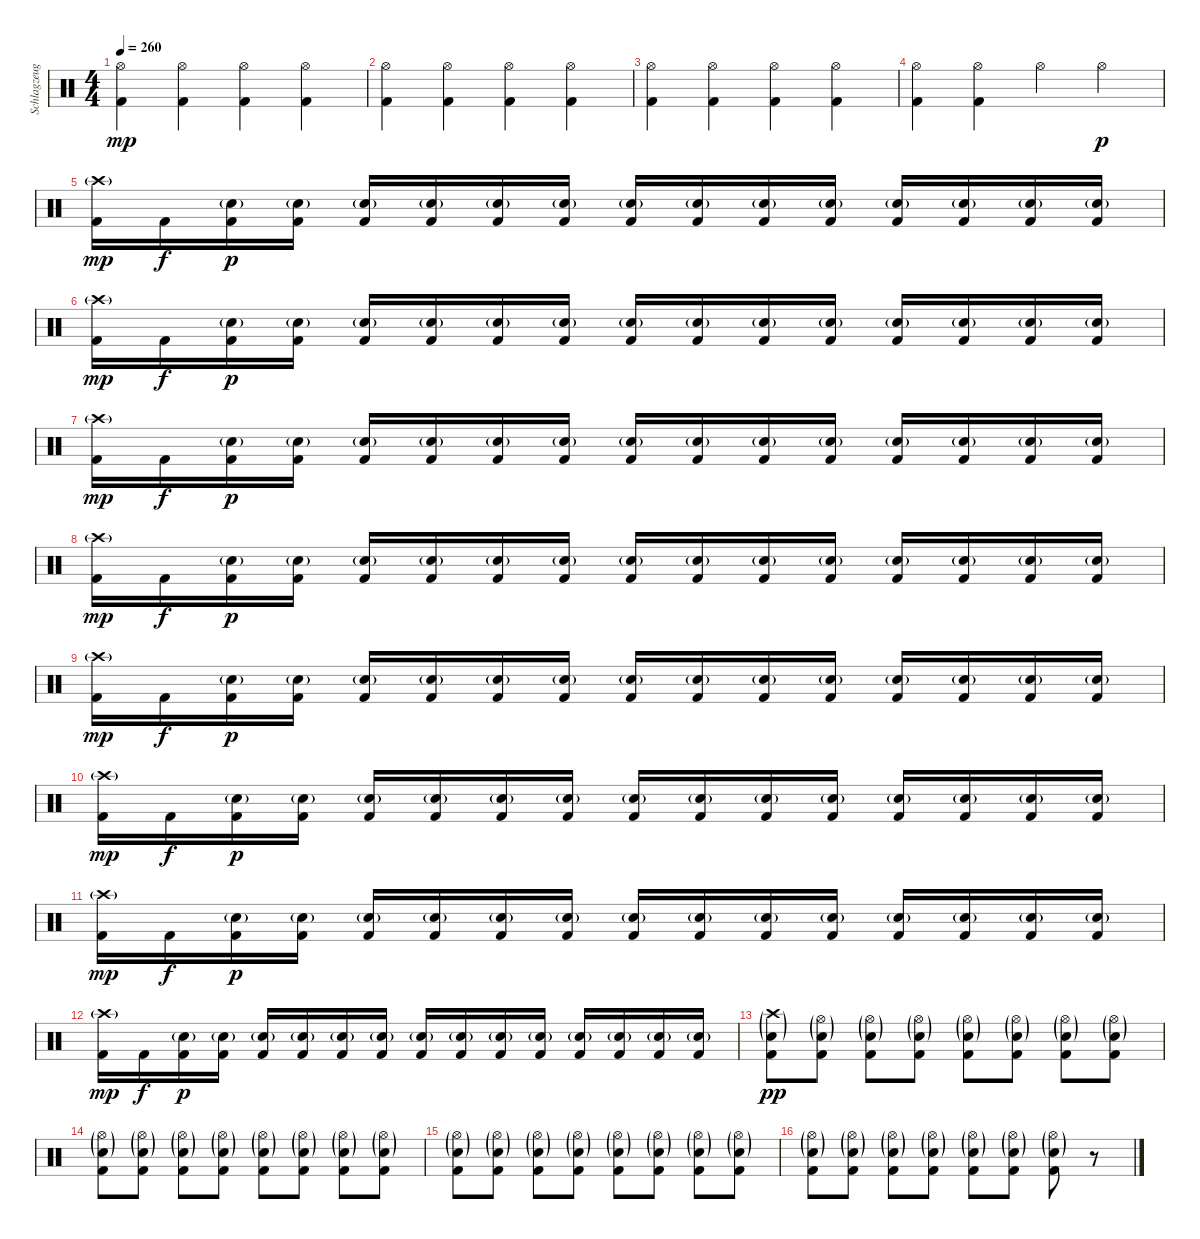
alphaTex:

\track ("Schlagzeug" "Schlagzeug") {instrument percussion}
\staff {score}
\articulation defaults
\ts (4 4)
\tempo 260
\clef neutral
\ks c
("Hi-Hat (open)" "Kick (hit) 2").4{dy mp} ("Hi-Hat (open)" "Kick (hit) 2").4 ("Hi-Hat (open)" "Kick (hit) 2").4 ("Hi-Hat (open)" "Kick (hit) 2").4 |
("Hi-Hat (open)" "Kick (hit) 2").4 ("Hi-Hat (open)" "Kick (hit) 2").4 ("Hi-Hat (open)" "Kick (hit) 2").4 ("Hi-Hat (open)" "Kick (hit) 2").4 |
("Hi-Hat (open)" "Kick (hit) 2").4 ("Hi-Hat (open)" "Kick (hit) 2").4 ("Hi-Hat (open)" "Kick (hit) 2").4 ("Hi-Hat (open)" "Kick (hit) 2").4 |
("Hi-Hat (open)" "Kick (hit) 2").4 ("Hi-Hat (open)" "Kick (hit) 2").4 "Hi-Hat (open)".4 "Hi-Hat (open)".4{dy p} |
("Crash high (hit)"{g} "Kick (hit) 2").16{dy mp} "Kick (hit) 2".16{dy f} ("Electric Snare (hit)"{g} "Kick (hit) 2").16{dy p} ("Electric Snare (hit)"{g} "Kick (hit) 2").16 ("Electric Snare (hit)"{g} "Kick (hit) 2").16 ("Electric Snare (hit)"{g} "Kick (hit) 2").16 ("Electric Snare (hit)"{g} "Kick (hit) 2").16 ("Electric Snare (hit)"{g} "Kick (hit) 2").16 ("Electric Snare (hit)"{g} "Kick (hit) 2").16 ("Electric Snare (hit)"{g} "Kick (hit) 2").16 ("Electric Snare (hit)"{g} "Kick (hit) 2").16 ("Electric Snare (hit)"{g} "Kick (hit) 2").16 ("Electric Snare (hit)"{g} "Kick (hit) 2").16 ("Electric Snare (hit)"{g} "Kick (hit) 2").16 ("Electric Snare (hit)"{g} "Kick (hit) 2").16 ("Electric Snare (hit)"{g} "Kick (hit) 2").16 |
("Crash high (hit)"{g} "Kick (hit) 2").16{dy mp} "Kick (hit) 2".16{dy f} ("Electric Snare (hit)"{g} "Kick (hit) 2").16{dy p} ("Electric Snare (hit)"{g} "Kick (hit) 2").16 ("Electric Snare (hit)"{g} "Kick (hit) 2").16 ("Electric Snare (hit)"{g} "Kick (hit) 2").16 ("Electric Snare (hit)"{g} "Kick (hit) 2").16 ("Electric Snare (hit)"{g} "Kick (hit) 2").16 ("Electric Snare (hit)"{g} "Kick (hit) 2").16 ("Electric Snare (hit)"{g} "Kick (hit) 2").16 ("Electric Snare (hit)"{g} "Kick (hit) 2").16 ("Electric Snare (hit)"{g} "Kick (hit) 2").16 ("Electric Snare (hit)"{g} "Kick (hit) 2").16 ("Electric Snare (hit)"{g} "Kick (hit) 2").16 ("Electric Snare (hit)"{g} "Kick (hit) 2").16 ("Electric Snare (hit)"{g} "Kick (hit) 2").16 |
("Crash high (hit)"{g} "Kick (hit) 2").16{dy mp} "Kick (hit) 2".16{dy f} ("Electric Snare (hit)"{g} "Kick (hit) 2").16{dy p} ("Electric Snare (hit)"{g} "Kick (hit) 2").16 ("Electric Snare (hit)"{g} "Kick (hit) 2").16 ("Electric Snare (hit)"{g} "Kick (hit) 2").16 ("Electric Snare (hit)"{g} "Kick (hit) 2").16 ("Electric Snare (hit)"{g} "Kick (hit) 2").16 ("Electric Snare (hit)"{g} "Kick (hit) 2").16 ("Electric Snare (hit)"{g} "Kick (hit) 2").16 ("Electric Snare (hit)"{g} "Kick (hit) 2").16 ("Electric Snare (hit)"{g} "Kick (hit) 2").16 ("Electric Snare (hit)"{g} "Kick (hit) 2").16 ("Electric Snare (hit)"{g} "Kick (hit) 2").16 ("Electric Snare (hit)"{g} "Kick (hit) 2").16 ("Electric Snare (hit)"{g} "Kick (hit) 2").16 |
("Crash high (hit)"{g} "Kick (hit) 2").16{dy mp} "Kick (hit) 2".16{dy f} ("Electric Snare (hit)"{g} "Kick (hit) 2").16{dy p} ("Electric Snare (hit)"{g} "Kick (hit) 2").16 ("Electric Snare (hit)"{g} "Kick (hit) 2").16 ("Electric Snare (hit)"{g} "Kick (hit) 2").16 ("Electric Snare (hit)"{g} "Kick (hit) 2").16 ("Electric Snare (hit)"{g} "Kick (hit) 2").16 ("Electric Snare (hit)"{g} "Kick (hit) 2").16 ("Electric Snare (hit)"{g} "Kick (hit) 2").16 ("Electric Snare (hit)"{g} "Kick (hit) 2").16 ("Electric Snare (hit)"{g} "Kick (hit) 2").16 ("Electric Snare (hit)"{g} "Kick (hit) 2").16 ("Electric Snare (hit)"{g} "Kick (hit) 2").16 ("Electric Snare (hit)"{g} "Kick (hit) 2").16 ("Electric Snare (hit)"{g} "Kick (hit) 2").16 |
("Crash high (hit)"{g} "Kick (hit) 2").16{dy mp} "Kick (hit) 2".16{dy f} ("Electric Snare (hit)"{g} "Kick (hit) 2").16{dy p} ("Electric Snare (hit)"{g} "Kick (hit) 2").16 ("Electric Snare (hit)"{g} "Kick (hit) 2").16 ("Electric Snare (hit)"{g} "Kick (hit) 2").16 ("Electric Snare (hit)"{g} "Kick (hit) 2").16 ("Electric Snare (hit)"{g} "Kick (hit) 2").16 ("Electric Snare (hit)"{g} "Kick (hit) 2").16 ("Electric Snare (hit)"{g} "Kick (hit) 2").16 ("Electric Snare (hit)"{g} "Kick (hit) 2").16 ("Electric Snare (hit)"{g} "Kick (hit) 2").16 ("Electric Snare (hit)"{g} "Kick (hit) 2").16 ("Electric Snare (hit)"{g} "Kick (hit) 2").16 ("Electric Snare (hit)"{g} "Kick (hit) 2").16 ("Electric Snare (hit)"{g} "Kick (hit) 2").16 |
("Crash high (hit)"{g} "Kick (hit) 2").16{dy mp} "Kick (hit) 2".16{dy f} ("Electric Snare (hit)"{g} "Kick (hit) 2").16{dy p} ("Electric Snare (hit)"{g} "Kick (hit) 2").16 ("Electric Snare (hit)"{g} "Kick (hit) 2").16 ("Electric Snare (hit)"{g} "Kick (hit) 2").16 ("Electric Snare (hit)"{g} "Kick (hit) 2").16 ("Electric Snare (hit)"{g} "Kick (hit) 2").16 ("Electric Snare (hit)"{g} "Kick (hit) 2").16 ("Electric Snare (hit)"{g} "Kick (hit) 2").16 ("Electric Snare (hit)"{g} "Kick (hit) 2").16 ("Electric Snare (hit)"{g} "Kick (hit) 2").16 ("Electric Snare (hit)"{g} "Kick (hit) 2").16 ("Electric Snare (hit)"{g} "Kick (hit) 2").16 ("Electric Snare (hit)"{g} "Kick (hit) 2").16 ("Electric Snare (hit)"{g} "Kick (hit) 2").16 |
("Crash high (hit)"{g} "Kick (hit) 2").16{dy mp} "Kick (hit) 2".16{dy f} ("Electric Snare (hit)"{g} "Kick (hit) 2").16{dy p} ("Electric Snare (hit)"{g} "Kick (hit) 2").16 ("Electric Snare (hit)"{g} "Kick (hit) 2").16 ("Electric Snare (hit)"{g} "Kick (hit) 2").16 ("Electric Snare (hit)"{g} "Kick (hit) 2").16 ("Electric Snare (hit)"{g} "Kick (hit) 2").16 ("Electric Snare (hit)"{g} "Kick (hit) 2").16 ("Electric Snare (hit)"{g} "Kick (hit) 2").16 ("Electric Snare (hit)"{g} "Kick (hit) 2").16 ("Electric Snare (hit)"{g} "Kick (hit) 2").16 ("Electric Snare (hit)"{g} "Kick (hit) 2").16 ("Electric Snare (hit)"{g} "Kick (hit) 2").16 ("Electric Snare (hit)"{g} "Kick (hit) 2").16 ("Electric Snare (hit)"{g} "Kick (hit) 2").16 |
("Crash high (hit)"{g} "Kick (hit) 2").16{dy mp} "Kick (hit) 2".16{dy f} ("Electric Snare (hit)"{g} "Kick (hit) 2").16{dy p} ("Electric Snare (hit)"{g} "Kick (hit) 2").16 ("Electric Snare (hit)"{g} "Kick (hit) 2").16 ("Electric Snare (hit)"{g} "Kick (hit) 2").16 ("Electric Snare (hit)"{g} "Kick (hit) 2").16 ("Electric Snare (hit)"{g} "Kick (hit) 2").16 ("Electric Snare (hit)"{g} "Kick (hit) 2").16 ("Electric Snare (hit)"{g} "Kick (hit) 2").16 ("Electric Snare (hit)"{g} "Kick (hit) 2").16 ("Electric Snare (hit)"{g} "Kick (hit) 2").16 ("Electric Snare (hit)"{g} "Kick (hit) 2").16 ("Electric Snare (hit)"{g} "Kick (hit) 2").16 ("Electric Snare (hit)"{g} "Kick (hit) 2").16 ("Electric Snare (hit)"{g} "Kick (hit) 2").16 |
("Crash high (hit)"{g} "Electric Snare (hit)"{g} "Kick (hit) 2").8{dy pp} ("Hi-Hat (open)"{g} "Electric Snare (hit)"{g} "Kick (hit) 2").8 ("Hi-Hat (open)"{g} "Electric Snare (hit)"{g} "Kick (hit) 2").8 ("Hi-Hat (open)"{g} "Electric Snare (hit)"{g} "Kick (hit) 2").8 ("Hi-Hat (open)"{g} "Electric Snare (hit)"{g} "Kick (hit) 2").8 ("Hi-Hat (open)"{g} "Electric Snare (hit)"{g} "Kick (hit) 2").8 ("Hi-Hat (open)"{g} "Electric Snare (hit)"{g} "Kick (hit) 2").8 ("Hi-Hat (open)"{g} "Electric Snare (hit)"{g} "Kick (hit) 2").8 |
("Hi-Hat (open)"{g} "Electric Snare (hit)"{g} "Kick (hit) 2").8 ("Hi-Hat (open)"{g} "Electric Snare (hit)"{g} "Kick (hit) 2").8 ("Hi-Hat (open)"{g} "Electric Snare (hit)"{g} "Kick (hit) 2").8 ("Hi-Hat (open)"{g} "Electric Snare (hit)"{g} "Kick (hit) 2").8 ("Hi-Hat (open)"{g} "Electric Snare (hit)"{g} "Kick (hit) 2").8 ("Hi-Hat (open)"{g} "Electric Snare (hit)"{g} "Kick (hit) 2").8 ("Hi-Hat (open)"{g} "Electric Snare (hit)"{g} "Kick (hit) 2").8 ("Hi-Hat (open)"{g} "Electric Snare (hit)"{g} "Kick (hit) 2").8 |
("Hi-Hat (open)"{g} "Electric Snare (hit)"{g} "Kick (hit) 2").8 ("Hi-Hat (open)"{g} "Electric Snare (hit)"{g} "Kick (hit) 2").8 ("Hi-Hat (open)"{g} "Electric Snare (hit)"{g} "Kick (hit) 2").8 ("Hi-Hat (open)"{g} "Electric Snare (hit)"{g} "Kick (hit) 2").8 ("Hi-Hat (open)"{g} "Electric Snare (hit)"{g} "Kick (hit) 2").8 ("Hi-Hat (open)"{g} "Electric Snare (hit)"{g} "Kick (hit) 2").8 ("Hi-Hat (open)"{g} "Electric Snare (hit)"{g} "Kick (hit) 2").8 ("Hi-Hat (open)"{g} "Electric Snare (hit)"{g} "Kick (hit) 2").8 |
("Hi-Hat (open)"{g} "Electric Snare (hit)"{g} "Kick (hit) 2").8 ("Hi-Hat (open)"{g} "Electric Snare (hit)"{g} "Kick (hit) 2").8 ("Hi-Hat (open)"{g} "Electric Snare (hit)"{g} "Kick (hit) 2").8 ("Hi-Hat (open)"{g} "Electric Snare (hit)"{g} "Kick (hit) 2").8 ("Hi-Hat (open)"{g} "Electric Snare (hit)"{g} "Kick (hit) 2").8 ("Hi-Hat (open)"{g} "Electric Snare (hit)"{g} "Kick (hit) 2").8 ("Hi-Hat (open)"{g} "Electric Snare (hit)"{g} "Kick (hit) 2").8 r.8
